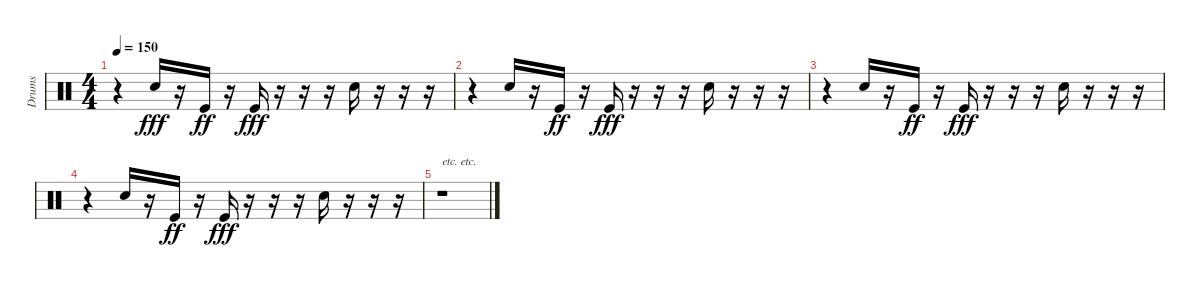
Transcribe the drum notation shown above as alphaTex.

\track ("Drums" "Drums") {instrument percussion}
\staff {score}
\articulation defaults
\ts (4 4)
\tempo 150
\clef neutral
\ks c
r.4{dy fff} "Snare (hit) 2".16 r.16 "Kick (hit)".16{dy ff} r.16 "Kick (hit)".16{dy fff} r.16 r.16 r.16 "Snare (hit) 2".16 r.16 r.16 r.16 |
r.4 "Snare (hit) 2".16 r.16 "Kick (hit)".16{dy ff} r.16 "Kick (hit)".16{dy fff} r.16 r.16 r.16 "Snare (hit) 2".16 r.16 r.16 r.16 |
r.4 "Snare (hit) 2".16 r.16 "Kick (hit)".16{dy ff} r.16 "Kick (hit)".16{dy fff} r.16 r.16 r.16 "Snare (hit) 2".16 r.16 r.16 r.16 |
r.4 "Snare (hit) 2".16 r.16 "Kick (hit)".16{dy ff} r.16 "Kick (hit)".16{dy fff} r.16 r.16 r.16 "Snare (hit) 2".16 r.16 r.16 r.16 |
r.1{txt "etc. etc."}
